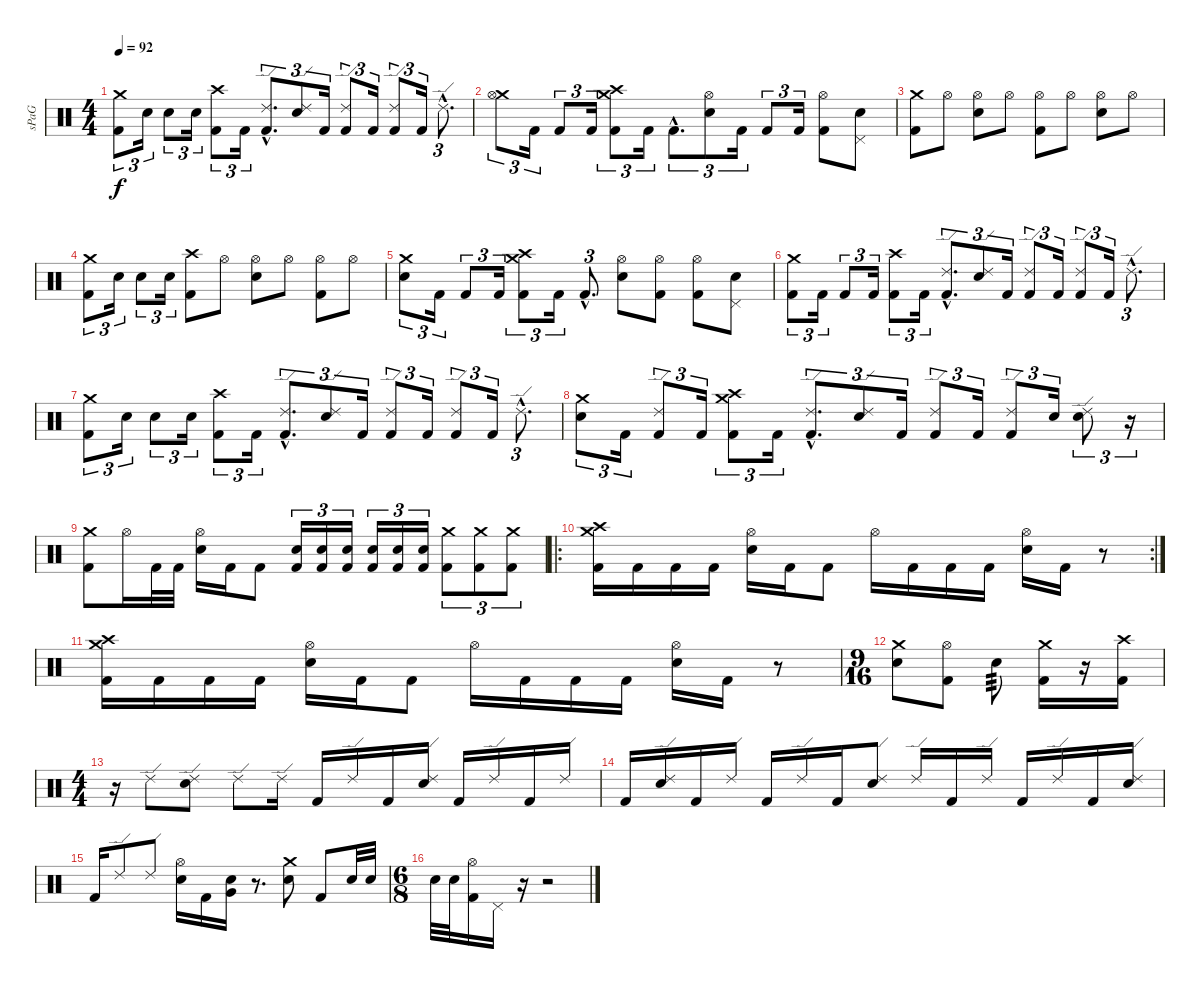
\track ("sPaG" "sPaG") {instrument percussion}
\staff {score}
\articulation defaults
\ts (4 4)
\tempo 92
\clef neutral
\ks c
("Crash medium (hit)" "Kick (hit) 2").8{tu (3 2) dy f} "Snare (hit) 2".16{tu (3 2)} "Snare (hit) 2".8{tu (3 2)} "Snare (hit) 2".16{tu (3 2)} ("Crash high (hit)" "Kick (hit) 2").8{tu (3 2)} "Kick (hit) 2".16{tu (3 2)} ("Ride (edge) 2"{hac} "Kick (hit) 2"{hac}).8{d tu (3 2)} ("Ride (edge) 2" "Snare (hit) 2").8{tu (3 2)} "Kick (hit) 2".16{tu (3 2)} ("Ride (edge) 2" "Kick (hit) 2").8{tu (3 2)} "Kick (hit) 2".16{tu (3 2)} ("Ride (edge) 2" "Kick (hit) 2").8{tu (3 2)} "Kick (hit) 2".16{tu (3 2)} "Ride (edge) 2"{hac}.8{d tu (3 2)} |
("Crash medium (hit)" "Hi-Hat (open)").8{tu (3 2)} "Kick (hit) 2".16{tu (3 2)} "Kick (hit) 2".8{tu (3 2)} "Kick (hit) 2".16{tu (3 2)} ("Crash high (hit)" "Crash medium (hit)" "Kick (hit) 2").8{tu (3 2)} "Kick (hit) 2".16{tu (3 2)} "Kick (hit) 2"{hac}.8{d tu (3 2)} ("Hi-Hat (open)" "Snare (hit) 2").8{tu (3 2)} "Kick (hit) 2".16{tu (3 2)} "Kick (hit) 2".8{tu (3 2)} "Kick (hit) 2".16{tu (3 2)} ("Hi-Hat (open)" "Kick (hit) 2").8 ("Pedal Hi-Hat (hit)" "Snare (hit) 2").8 |
("Crash medium (hit)" "Kick (hit) 2").8 "Hi-Hat (open)".8 ("Hi-Hat (open)" "Snare (hit) 2").8 "Hi-Hat (open)".8 ("Hi-Hat (open)" "Kick (hit) 2").8 "Hi-Hat (open)".8 ("Hi-Hat (open)" "Snare (hit) 2").8 "Hi-Hat (open)".8 |
("Crash medium (hit)" "Kick (hit) 2").8{tu (3 2)} "Snare (hit) 2".16{tu (3 2)} "Snare (hit) 2".8{tu (3 2)} "Snare (hit) 2".16{tu (3 2)} ("Crash high (hit)" "Kick (hit) 2").8 "Hi-Hat (open)".8 ("Hi-Hat (open)" "Snare (hit) 2").8 "Hi-Hat (open)".8 ("Hi-Hat (open)" "Kick (hit) 2").8 "Hi-Hat (open)".8 |
("Crash medium (hit)" "Snare (hit) 2").8{tu (3 2)} "Kick (hit) 2".16{tu (3 2)} "Kick (hit) 2".8{tu (3 2)} "Kick (hit) 2".16{tu (3 2)} ("Crash medium (hit)" "Crash high (hit)" "Kick (hit) 2").8{tu (3 2)} "Kick (hit) 2".16{tu (3 2)} "Kick (hit) 2"{hac}.8{d tu (3 2)} ("Hi-Hat (open)" "Snare (hit) 2").8 ("Hi-Hat (open)" "Kick (hit) 2").8 ("Hi-Hat (open)" "Kick (hit) 2").8 ("Pedal Hi-Hat (hit)" "Snare (hit) 2").8 |
("Crash medium (hit)" "Kick (hit) 2").8{tu (3 2)} "Kick (hit) 2".16{tu (3 2)} "Kick (hit) 2".8{tu (3 2)} "Kick (hit) 2".16{tu (3 2)} ("Crash high (hit)" "Kick (hit) 2").8{tu (3 2)} "Kick (hit) 2".16{tu (3 2)} ("Ride (edge) 2"{hac} "Kick (hit) 2"{hac}).8{d tu (3 2)} ("Ride (edge) 2" "Snare (hit) 2").8{tu (3 2)} "Kick (hit) 2".16{tu (3 2)} ("Ride (edge) 2" "Kick (hit) 2").8{tu (3 2)} "Kick (hit) 2".16{tu (3 2)} ("Ride (edge) 2" "Kick (hit) 2").8{tu (3 2)} "Kick (hit) 2".16{tu (3 2)} "Ride (edge) 2"{hac}.8{d tu (3 2)} |
("Crash medium (hit)" "Kick (hit) 2").8{tu (3 2)} "Snare (hit) 2".16{tu (3 2)} "Snare (hit) 2".8{tu (3 2)} "Snare (hit) 2".16{tu (3 2)} ("Crash high (hit)" "Kick (hit) 2").8{tu (3 2)} "Kick (hit) 2".16{tu (3 2)} ("Ride (edge) 2"{hac} "Kick (hit) 2"{hac}).8{d tu (3 2)} ("Ride (edge) 2" "Snare (hit) 2").8{tu (3 2)} "Kick (hit) 2".16{tu (3 2)} ("Ride (edge) 2" "Kick (hit) 2").8{tu (3 2)} "Kick (hit) 2".16{tu (3 2)} ("Ride (edge) 2" "Kick (hit) 2").8{tu (3 2)} "Kick (hit) 2".16{tu (3 2)} "Ride (edge) 2"{hac}.8{d tu (3 2)} |
("Crash medium (hit)" "Snare (hit) 2").8{tu (3 2)} "Kick (hit) 2".16{tu (3 2)} ("Ride (edge) 2" "Kick (hit) 2").8{tu (3 2)} "Kick (hit) 2".16{tu (3 2)} ("Crash medium (hit)" "Crash high (hit)" "Kick (hit) 2").8{tu (3 2)} "Kick (hit) 2".16{tu (3 2)} ("Ride (edge) 2"{hac} "Kick (hit) 2"{hac}).8{d tu (3 2)} ("Ride (edge) 2" "Snare (hit) 2").8{tu (3 2)} "Kick (hit) 2".16{tu (3 2)} ("Ride (edge) 2" "Kick (hit) 2").8{tu (3 2)} "Kick (hit) 2".16{tu (3 2)} ("Ride (edge) 2" "Kick (hit) 2").8{tu (3 2)} "Snare (hit) 2".16{tu (3 2)} ("Ride (edge) 2" "Snare (hit) 2").8{tu (3 2)} r.16{tu (3 2)} |
("Crash medium (hit)" "Kick (hit) 2").8 "Hi-Hat (open)".16 "Kick (hit) 2".32 "Kick (hit) 2".32 ("Hi-Hat (open)" "Snare (hit) 2").16 "Kick (hit) 2".16 "Kick (hit) 2".8 ("Snare (hit) 2" "Kick (hit) 2").16{tu (3 2)} ("Snare (hit) 2" "Kick (hit) 2").16{tu (3 2)} ("Snare (hit) 2" "Kick (hit) 2").16{tu (3 2)} ("Snare (hit) 2" "Kick (hit) 2").16{tu (3 2)} ("Snare (hit) 2" "Kick (hit) 2").16{tu (3 2)} ("Snare (hit) 2" "Kick (hit) 2").16{tu (3 2)} ("Crash medium (hit)" "Kick (hit) 2").8{tu (3 2)} ("Crash medium (hit)" "Kick (hit) 2").8{tu (3 2)} ("Crash medium (hit)" "Kick (hit) 2").8{tu (3 2)} |
\ro
\rc 2
("Crash medium (hit)" "Crash high (hit)" "Kick (hit) 2").16 "Kick (hit) 2".16 "Kick (hit) 2".16 "Kick (hit) 2".16 ("Hi-Hat (open)" "Snare (hit) 2").16 "Kick (hit) 2".16 "Kick (hit) 2".8 "Hi-Hat (open)".16 "Kick (hit) 2".16 "Kick (hit) 2".16 "Kick (hit) 2".16 ("Hi-Hat (open)" "Snare (hit) 2").16 "Kick (hit) 2".16 r.8 |
("Crash medium (hit)" "Crash high (hit)" "Kick (hit) 2").16 "Kick (hit) 2".16 "Kick (hit) 2".16 "Kick (hit) 2".16 ("Hi-Hat (open)" "Snare (hit) 2").16 "Kick (hit) 2".16 "Kick (hit) 2".8 "Hi-Hat (open)".16 "Kick (hit) 2".16 "Kick (hit) 2".16 "Kick (hit) 2".16 ("Hi-Hat (open)" "Snare (hit) 2").16 "Kick (hit) 2".16 r.8 |
\ts (9 16)
("Crash medium (hit)" "Snare (hit) 2").8 ("Hi-Hat (open)" "Kick (hit) 2").8 "Snare (hit) 2".8{tp 3} ("Crash medium (hit)" "Kick (hit) 2").16 r.16 ("Crash high (hit)" "Kick (hit) 2").16 |
\ts (4 4)
r.16 "Ride (edge) 2".8 ("Ride (edge) 2" "Snare (hit) 2").8 "Ride (edge) 2".8 "Ride (edge) 2".16 "Kick (hit) 2".16 "Ride (edge) 2".16 "Kick (hit) 2".16 ("Ride (edge) 2" "Snare (hit) 2").16 "Kick (hit) 2".16 "Ride (edge) 2".16 "Kick (hit) 2".16 "Ride (edge) 2".16 |
"Kick (hit) 2".16 ("Ride (edge) 2" "Snare (hit) 2").16 "Kick (hit) 2".16 "Ride (edge) 2".16 "Kick (hit) 2".16 "Ride (edge) 2".16 "Kick (hit) 2".16 ("Ride (edge) 2" "Snare (hit) 2").8 "Ride (edge) 2".16 "Kick (hit) 2".16 "Ride (edge) 2".16 "Kick (hit) 2".16 "Ride (edge) 2".16 "Kick (hit) 2".16 ("Ride (edge) 2" "Snare (hit) 2").16 |
"Kick (hit) 2".16 "Ride (edge) 2".8 "Ride (edge) 2".8 ("Hi-Hat (open)" "Snare (hit) 2").16 "Kick (hit) 2".16 ("Very Low Tom (hit)" "Snare (hit) 2").16 r.8{d} ("Crash medium (hit)" "Snare (hit) 2").8 "Kick (hit) 2".8 "Snare (hit) 2".32 "Snare (hit) 2".32 |
\ts (6 8)
"Snare (hit) 2".32 "Snare (hit) 2".32 ("Hi-Hat (open)" "Kick (hit) 2").16 "Pedal Hi-Hat (hit)".16 r.16 r.2
